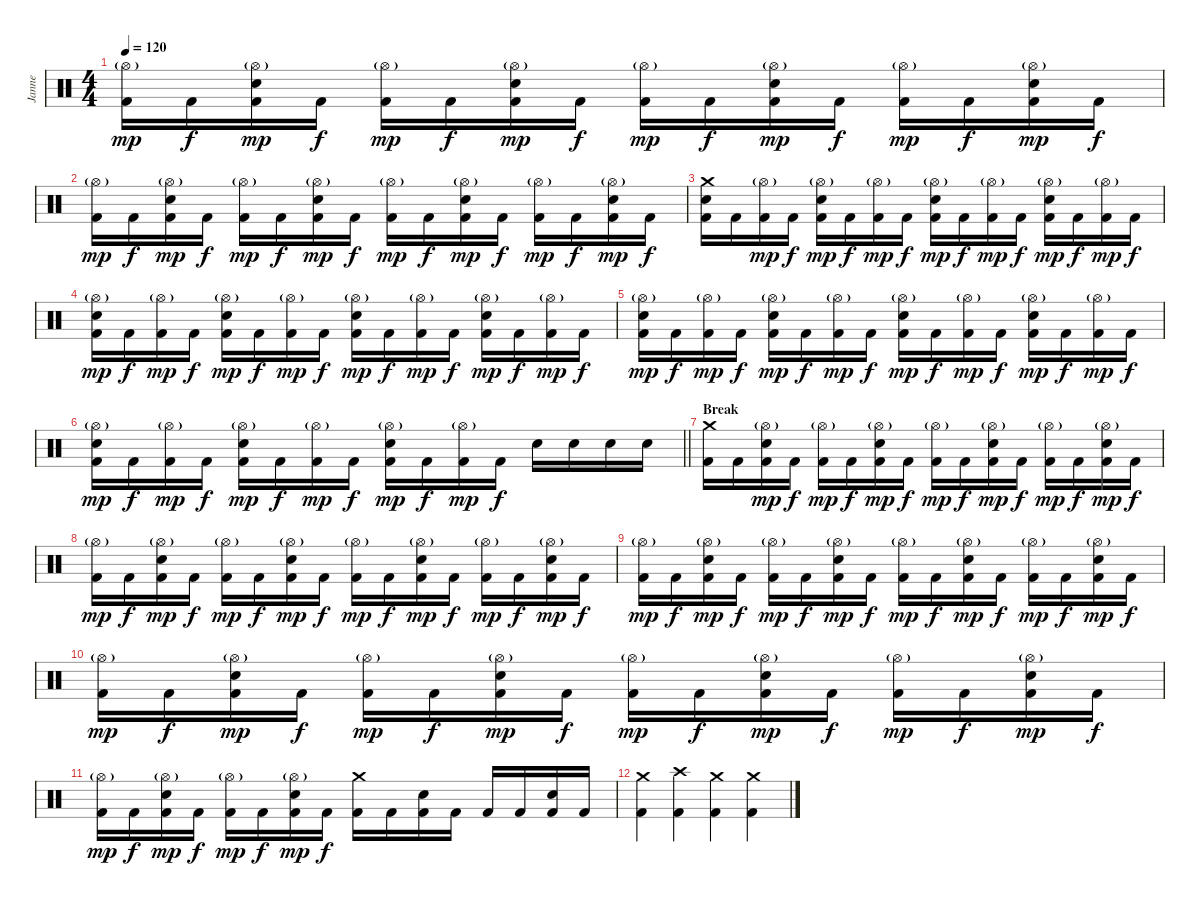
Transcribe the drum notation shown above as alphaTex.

\track ("Janne" "Janne") {instrument percussion}
\staff {score}
\articulation defaults
\ts (4 4)
\tempo 120
\clef neutral
\ks c
("Kick (hit) 2" "Hi-Hat (open)"{g}).16{dy mp} "Kick (hit) 2".16{dy f} ("Kick (hit) 2" "Snare (hit) 2" "Hi-Hat (open)"{g}).16{dy mp} "Kick (hit) 2".16{dy f} ("Kick (hit) 2" "Hi-Hat (open)"{g}).16{dy mp} "Kick (hit) 2".16{dy f} ("Kick (hit) 2" "Snare (hit) 2" "Hi-Hat (open)"{g}).16{dy mp} "Kick (hit) 2".16{dy f} ("Kick (hit) 2" "Hi-Hat (open)"{g}).16{dy mp} "Kick (hit) 2".16{dy f} ("Kick (hit) 2" "Snare (hit) 2" "Hi-Hat (open)"{g}).16{dy mp} "Kick (hit) 2".16{dy f} ("Kick (hit) 2" "Hi-Hat (open)"{g}).16{dy mp} "Kick (hit) 2".16{dy f} ("Kick (hit) 2" "Snare (hit) 2" "Hi-Hat (open)"{g}).16{dy mp} "Kick (hit) 2".16{dy f} |
("Kick (hit) 2" "Hi-Hat (open)"{g}).16{dy mp} "Kick (hit) 2".16{dy f} ("Kick (hit) 2" "Snare (hit) 2" "Hi-Hat (open)"{g}).16{dy mp} "Kick (hit) 2".16{dy f} ("Kick (hit) 2" "Hi-Hat (open)"{g}).16{dy mp} "Kick (hit) 2".16{dy f} ("Kick (hit) 2" "Snare (hit) 2" "Hi-Hat (open)"{g}).16{dy mp} "Kick (hit) 2".16{dy f} ("Kick (hit) 2" "Hi-Hat (open)"{g}).16{dy mp} "Kick (hit) 2".16{dy f} ("Kick (hit) 2" "Snare (hit) 2" "Hi-Hat (open)"{g}).16{dy mp} "Kick (hit) 2".16{dy f} ("Kick (hit) 2" "Hi-Hat (open)"{g}).16{dy mp} "Kick (hit) 2".16{dy f} ("Kick (hit) 2" "Snare (hit) 2" "Hi-Hat (open)"{g}).16{dy mp} "Kick (hit) 2".16{dy f} |
("Kick (hit) 2" "Snare (hit) 2" "Crash medium (hit)").16 "Kick (hit) 2".16 ("Kick (hit) 2" "Hi-Hat (open)"{g}).16{dy mp} "Kick (hit) 2".16{dy f} ("Kick (hit) 2" "Snare (hit) 2" "Hi-Hat (open)"{g}).16{dy mp} "Kick (hit) 2".16{dy f} ("Kick (hit) 2" "Hi-Hat (open)"{g}).16{dy mp} "Kick (hit) 2".16{dy f} ("Kick (hit) 2" "Snare (hit) 2" "Hi-Hat (open)"{g}).16{dy mp} "Kick (hit) 2".16{dy f} ("Kick (hit) 2" "Hi-Hat (open)"{g}).16{dy mp} "Kick (hit) 2".16{dy f} ("Kick (hit) 2" "Snare (hit) 2" "Hi-Hat (open)"{g}).16{dy mp} "Kick (hit) 2".16{dy f} ("Kick (hit) 2" "Hi-Hat (open)"{g}).16{dy mp} "Kick (hit) 2".16{dy f} |
("Kick (hit) 2" "Snare (hit) 2" "Hi-Hat (open)"{g}).16{dy mp} "Kick (hit) 2".16{dy f} ("Kick (hit) 2" "Hi-Hat (open)"{g}).16{dy mp} "Kick (hit) 2".16{dy f} ("Kick (hit) 2" "Snare (hit) 2" "Hi-Hat (open)"{g}).16{dy mp} "Kick (hit) 2".16{dy f} ("Kick (hit) 2" "Hi-Hat (open)"{g}).16{dy mp} "Kick (hit) 2".16{dy f} ("Kick (hit) 2" "Snare (hit) 2" "Hi-Hat (open)"{g}).16{dy mp} "Kick (hit) 2".16{dy f} ("Kick (hit) 2" "Hi-Hat (open)"{g}).16{dy mp} "Kick (hit) 2".16{dy f} ("Kick (hit) 2" "Snare (hit) 2" "Hi-Hat (open)"{g}).16{dy mp} "Kick (hit) 2".16{dy f} ("Kick (hit) 2" "Hi-Hat (open)"{g}).16{dy mp} "Kick (hit) 2".16{dy f} |
("Kick (hit) 2" "Snare (hit) 2" "Hi-Hat (open)"{g}).16{dy mp} "Kick (hit) 2".16{dy f} ("Kick (hit) 2" "Hi-Hat (open)"{g}).16{dy mp} "Kick (hit) 2".16{dy f} ("Kick (hit) 2" "Snare (hit) 2" "Hi-Hat (open)"{g}).16{dy mp} "Kick (hit) 2".16{dy f} ("Kick (hit) 2" "Hi-Hat (open)"{g}).16{dy mp} "Kick (hit) 2".16{dy f} ("Kick (hit) 2" "Snare (hit) 2" "Hi-Hat (open)"{g}).16{dy mp} "Kick (hit) 2".16{dy f} ("Kick (hit) 2" "Hi-Hat (open)"{g}).16{dy mp} "Kick (hit) 2".16{dy f} ("Kick (hit) 2" "Snare (hit) 2" "Hi-Hat (open)"{g}).16{dy mp} "Kick (hit) 2".16{dy f} ("Kick (hit) 2" "Hi-Hat (open)"{g}).16{dy mp} "Kick (hit) 2".16{dy f} |
\barLineRight lightlight
("Kick (hit) 2" "Snare (hit) 2" "Hi-Hat (open)"{g}).16{dy mp} "Kick (hit) 2".16{dy f} ("Kick (hit) 2" "Hi-Hat (open)"{g}).16{dy mp} "Kick (hit) 2".16{dy f} ("Kick (hit) 2" "Snare (hit) 2" "Hi-Hat (open)"{g}).16{dy mp} "Kick (hit) 2".16{dy f} ("Kick (hit) 2" "Hi-Hat (open)"{g}).16{dy mp} "Kick (hit) 2".16{dy f} ("Kick (hit) 2" "Snare (hit) 2" "Hi-Hat (open)"{g}).16{dy mp} "Kick (hit) 2".16{dy f} ("Kick (hit) 2" "Hi-Hat (open)"{g}).16{dy mp} "Kick (hit) 2".16{dy f} "Snare (hit) 2".16 "Snare (hit) 2".16 "Snare (hit) 2".16 "Snare (hit) 2".16 |
\section ("" "Break")
("Kick (hit) 2" "Crash medium (hit)").16 "Kick (hit) 2".16 ("Kick (hit) 2" "Snare (hit) 2" "Hi-Hat (open)"{g}).16{dy mp} "Kick (hit) 2".16{dy f} ("Kick (hit) 2" "Hi-Hat (open)"{g}).16{dy mp} "Kick (hit) 2".16{dy f} ("Kick (hit) 2" "Snare (hit) 2" "Hi-Hat (open)"{g}).16{dy mp} "Kick (hit) 2".16{dy f} ("Kick (hit) 2" "Hi-Hat (open)"{g}).16{dy mp} "Kick (hit) 2".16{dy f} ("Kick (hit) 2" "Snare (hit) 2" "Hi-Hat (open)"{g}).16{dy mp} "Kick (hit) 2".16{dy f} ("Kick (hit) 2" "Hi-Hat (open)"{g}).16{dy mp} "Kick (hit) 2".16{dy f} ("Kick (hit) 2" "Snare (hit) 2" "Hi-Hat (open)"{g}).16{dy mp} "Kick (hit) 2".16{dy f} |
("Kick (hit) 2" "Hi-Hat (open)"{g}).16{dy mp} "Kick (hit) 2".16{dy f} ("Kick (hit) 2" "Snare (hit) 2" "Hi-Hat (open)"{g}).16{dy mp} "Kick (hit) 2".16{dy f} ("Kick (hit) 2" "Hi-Hat (open)"{g}).16{dy mp} "Kick (hit) 2".16{dy f} ("Kick (hit) 2" "Snare (hit) 2" "Hi-Hat (open)"{g}).16{dy mp} "Kick (hit) 2".16{dy f} ("Kick (hit) 2" "Hi-Hat (open)"{g}).16{dy mp} "Kick (hit) 2".16{dy f} ("Kick (hit) 2" "Snare (hit) 2" "Hi-Hat (open)"{g}).16{dy mp} "Kick (hit) 2".16{dy f} ("Kick (hit) 2" "Hi-Hat (open)"{g}).16{dy mp} "Kick (hit) 2".16{dy f} ("Kick (hit) 2" "Snare (hit) 2" "Hi-Hat (open)"{g}).16{dy mp} "Kick (hit) 2".16{dy f} |
("Kick (hit) 2" "Hi-Hat (open)"{g}).16{dy mp} "Kick (hit) 2".16{dy f} ("Kick (hit) 2" "Snare (hit) 2" "Hi-Hat (open)"{g}).16{dy mp} "Kick (hit) 2".16{dy f} ("Kick (hit) 2" "Hi-Hat (open)"{g}).16{dy mp} "Kick (hit) 2".16{dy f} ("Kick (hit) 2" "Snare (hit) 2" "Hi-Hat (open)"{g}).16{dy mp} "Kick (hit) 2".16{dy f} ("Kick (hit) 2" "Hi-Hat (open)"{g}).16{dy mp} "Kick (hit) 2".16{dy f} ("Kick (hit) 2" "Snare (hit) 2" "Hi-Hat (open)"{g}).16{dy mp} "Kick (hit) 2".16{dy f} ("Kick (hit) 2" "Hi-Hat (open)"{g}).16{dy mp} "Kick (hit) 2".16{dy f} ("Kick (hit) 2" "Snare (hit) 2" "Hi-Hat (open)"{g}).16{dy mp} "Kick (hit) 2".16{dy f} |
("Kick (hit) 2" "Hi-Hat (open)"{g}).16{dy mp} "Kick (hit) 2".16{dy f} ("Kick (hit) 2" "Snare (hit) 2" "Hi-Hat (open)"{g}).16{dy mp} "Kick (hit) 2".16{dy f} ("Kick (hit) 2" "Hi-Hat (open)"{g}).16{dy mp} "Kick (hit) 2".16{dy f} ("Kick (hit) 2" "Snare (hit) 2" "Hi-Hat (open)"{g}).16{dy mp} "Kick (hit) 2".16{dy f} ("Kick (hit) 2" "Hi-Hat (open)"{g}).16{dy mp} "Kick (hit) 2".16{dy f} ("Kick (hit) 2" "Snare (hit) 2" "Hi-Hat (open)"{g}).16{dy mp} "Kick (hit) 2".16{dy f} ("Kick (hit) 2" "Hi-Hat (open)"{g}).16{dy mp} "Kick (hit) 2".16{dy f} ("Kick (hit) 2" "Snare (hit) 2" "Hi-Hat (open)"{g}).16{dy mp} "Kick (hit) 2".16{dy f} |
("Kick (hit) 2" "Hi-Hat (open)"{g}).16{dy mp} "Kick (hit) 2".16{dy f} ("Kick (hit) 2" "Snare (hit) 2" "Hi-Hat (open)"{g}).16{dy mp} "Kick (hit) 2".16{dy f} ("Kick (hit) 2" "Hi-Hat (open)"{g}).16{dy mp} "Kick (hit) 2".16{dy f} ("Kick (hit) 2" "Snare (hit) 2" "Hi-Hat (open)"{g}).16{dy mp} "Kick (hit) 2".16{dy f} ("Kick (hit) 2" "Crash medium (hit)").16 "Kick (hit) 2".16 ("Kick (hit) 2" "Snare (hit) 2").16 "Kick (hit) 2".16 "Kick (hit) 2".16 "Kick (hit) 2".16 ("Kick (hit) 2" "Snare (hit) 2").16 "Kick (hit) 2".16 |
("Kick (hit) 2" "Crash medium (hit)").4 ("Kick (hit) 2" "Crash high (hit)").4 ("Kick (hit) 2" "Crash medium (hit)").4 ("Kick (hit) 2" "Crash medium (hit)").4
